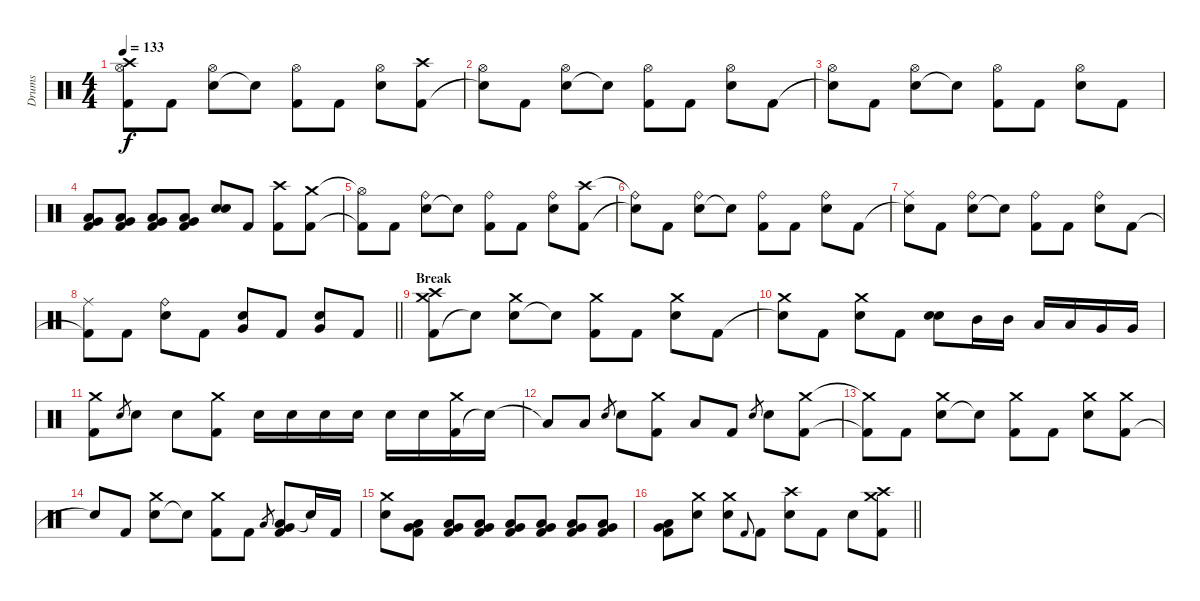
\track ("Drums" "Drums") {instrument percussion}
\staff {score}
\articulation defaults
\ts (4 4)
\tempo 133
\clef neutral
\ks c
("Kick (hit) 2"{t} "Hi-Hat (open)"{t} "Crash high (hit)"{t}).8{dy f} "Kick (hit) 2".8 ("Electric Snare (hit)" "Hi-Hat (open)").8 "Snare (hit)"{t}.8 ("Kick (hit) 2" "Hi-Hat (open)").8 "Kick (hit) 2".8 ("Electric Snare (hit)" "Hi-Hat (open)").8 ("Kick (hit) 2" "Crash high (hit)").8 |
("Snare (hit)"{t} "Hi-Hat (open)").8 "Kick (hit) 2".8 ("Electric Snare (hit)" "Hi-Hat (open)").8 "Snare (hit)"{t}.8 ("Kick (hit) 2" "Hi-Hat (open)").8 "Kick (hit) 2".8 ("Electric Snare (hit)" "Hi-Hat (open)").8 "Kick (hit) 2".8 |
("Snare (hit)"{t} "Hi-Hat (open)").8 "Kick (hit) 2".8 ("Electric Snare (hit)" "Hi-Hat (open)").8 "Snare (hit)"{t}.8 ("Kick (hit) 2" "Hi-Hat (open)").8 "Kick (hit) 2".8 ("Electric Snare (hit)" "Hi-Hat (open)").8 "Kick (hit) 2".8 |
("Very Low Tom (hit)" "Low Tom (hit)" "Kick (hit) 2").8 ("Very Low Tom (hit)" "Low Tom (hit)" "Kick (hit) 2").8 ("Very Low Tom (hit)" "Low Tom (hit)" "Kick (hit) 2").8 ("Very Low Tom (hit)" "Low Tom (hit)" "Kick (hit) 2").8 ("Electric Snare (hit)" "Electric Snare (hit)").8 "Kick (hit) 2".8 ("Kick (hit) 2" "Crash high (hit)").8 ("Kick (hit) 2" "Crash medium (hit)").8 |
("Kick (hit) 2"{t} "Hi-Hat (open)"{t}).8 "Kick (hit) 2".8 ("Electric Snare (hit)" "Ride (bell)").8 "Snare (hit)"{t}.8 ("Kick (hit) 2" "Ride (bell)").8 "Kick (hit) 2".8 ("Electric Snare (hit)" "Ride (bell)").8 ("Kick (hit) 2" "Crash high (hit)").8 |
("Snare (hit)"{t} "Ride (bell)"{t}).8 "Kick (hit) 2".8 ("Electric Snare (hit)" "Ride (bell)").8 "Snare (hit)"{t}.8 ("Kick (hit) 2" "Ride (bell)").8 "Kick (hit) 2".8 ("Electric Snare (hit)" "Ride (bell)").8 "Kick (hit) 2".8 |
("Snare (hit)"{t} "Ride (middle)").8 "Kick (hit) 2".8 ("Electric Snare (hit)" "Ride (bell)").8 "Snare (hit)"{t}.8 ("Kick (hit) 2" "Ride (bell)").8 "Kick (hit) 2".8 ("Electric Snare (hit)" "Ride (bell)").8 "Kick (hit) 2".8 |
\barLineRight lightlight
("Kick (hit) 2"{t} "Ride (middle)").8 "Kick (hit) 2".8 ("Electric Snare (hit)" "Ride (bell)").8 "Kick (hit) 2".8 ("Electric Snare (hit)" "Very Low Tom (hit)").8 "Kick (hit) 2".8 ("Electric Snare (hit)" "Very Low Tom (hit)").8 "Kick (hit) 2".8 |
\section ("" "Break")
("Kick (hit) 2" "Crash medium (hit)" "Crash high (hit)").8 "Snare (hit)"{t}.8 ("Electric Snare (hit)" "Crash medium (hit)").8 "Snare (hit)"{t}.8 ("Kick (hit) 2" "Crash medium (hit)").8 "Kick (hit) 2".8 ("Electric Snare (hit)" "Crash medium (hit)").8 "Kick (hit) 2".8 |
("Snare (hit)"{t} "Crash medium (hit)").8 "Kick (hit) 2".8 ("Electric Snare (hit)" "Crash medium (hit)").8 "Kick (hit) 2".8 ("Electric Snare (hit)" "Electric Snare (hit)").8 "Mid Tom (hit)".16 "Mid Tom (hit)".16 "Low Tom (hit)".16 "Low Tom (hit)".16 "Very Low Tom (hit)".16 "Very Low Tom (hit)".16 |
("Kick (hit) 2" "Crash medium (hit)").8 "Electric Snare (hit)".8{gr} "Electric Snare (hit)".8 "Electric Snare (hit)".8 ("Kick (hit) 2" "Crash medium (hit)").8 "Electric Snare (hit)".16 "Electric Snare (hit)".16 "Electric Snare (hit)".16 "Electric Snare (hit)".16 "Electric Snare (hit)".16 "Electric Snare (hit)".16 ("Kick (hit) 2" "Crash medium (hit)").16 "Snare (hit)"{t}.16 |
"Low Tom (hit)"{t}.8 "Low Tom (hit)".8 "Electric Snare (hit)".8{gr} "Electric Snare (hit)".8 ("Kick (hit) 2" "Crash medium (hit)").8 "Low Tom (hit)".8 "Kick (hit) 2".8 "Electric Snare (hit)".8{gr} "Electric Snare (hit)".8 ("Kick (hit) 2" "Crash medium (hit)").8 |
("Kick (hit) 2"{t} "Crash medium (hit)"{t}).8 "Kick (hit) 2".8 ("Electric Snare (hit)" "Crash medium (hit)").8 "Snare (hit)"{t}.8 ("Kick (hit) 2" "Crash medium (hit)").8 "Kick (hit) 2".8 ("Electric Snare (hit)" "Crash medium (hit)").8 ("Kick (hit) 2" "Crash medium (hit)").8 |
"Snare (hit)"{t}.8 "Kick (hit) 2".8 ("Electric Snare (hit)" "Crash medium (hit)").8 "Snare (hit)"{t}.8 ("Kick (hit) 2" "Crash medium (hit)").8 "Kick (hit) 2".8 "Low Tom (hit)".8{gr} ("Low Tom (hit)" "Very Low Tom (hit)" "Kick (hit) 2").8 "Snare (hit)"{t}.16 "Kick (hit) 2".16 |
("Electric Snare (hit)" "Crash medium (hit)").8 ("Kick (hit) 2" "Very Low Tom (hit)" "Low Tom (hit)").8{volume 7} ("Kick (hit) 2" "Very Low Tom (hit)" "Low Tom (hit)").8{volume 13} ("Kick (hit) 2" "Very Low Tom (hit)" "Low Tom (hit)").8 ("Kick (hit) 2" "Very Low Tom (hit)" "Low Tom (hit)").8 ("Kick (hit) 2" "Very Low Tom (hit)" "Low Tom (hit)").8 ("Kick (hit) 2" "Very Low Tom (hit)" "Low Tom (hit)").8 ("Kick (hit) 2" "Very Low Tom (hit)" "Low Tom (hit)").8 |
\barLineRight lightlight
("Kick (hit) 2" "Very Low Tom (hit)" "Low Tom (hit)").8 ("Electric Snare (hit)" "Crash medium (hit)").8 ("Electric Snare (hit)" "Crash medium (hit)").8 "Kick (hit) 2".8{gr onbeat} "Kick (hit) 2".8 ("Electric Snare (hit)" "Crash high (hit)").8 "Kick (hit) 2".8 "Electric Snare (hit)".8 ("Kick (hit) 2" "Crash medium (hit)" "Crash high (hit)").8
